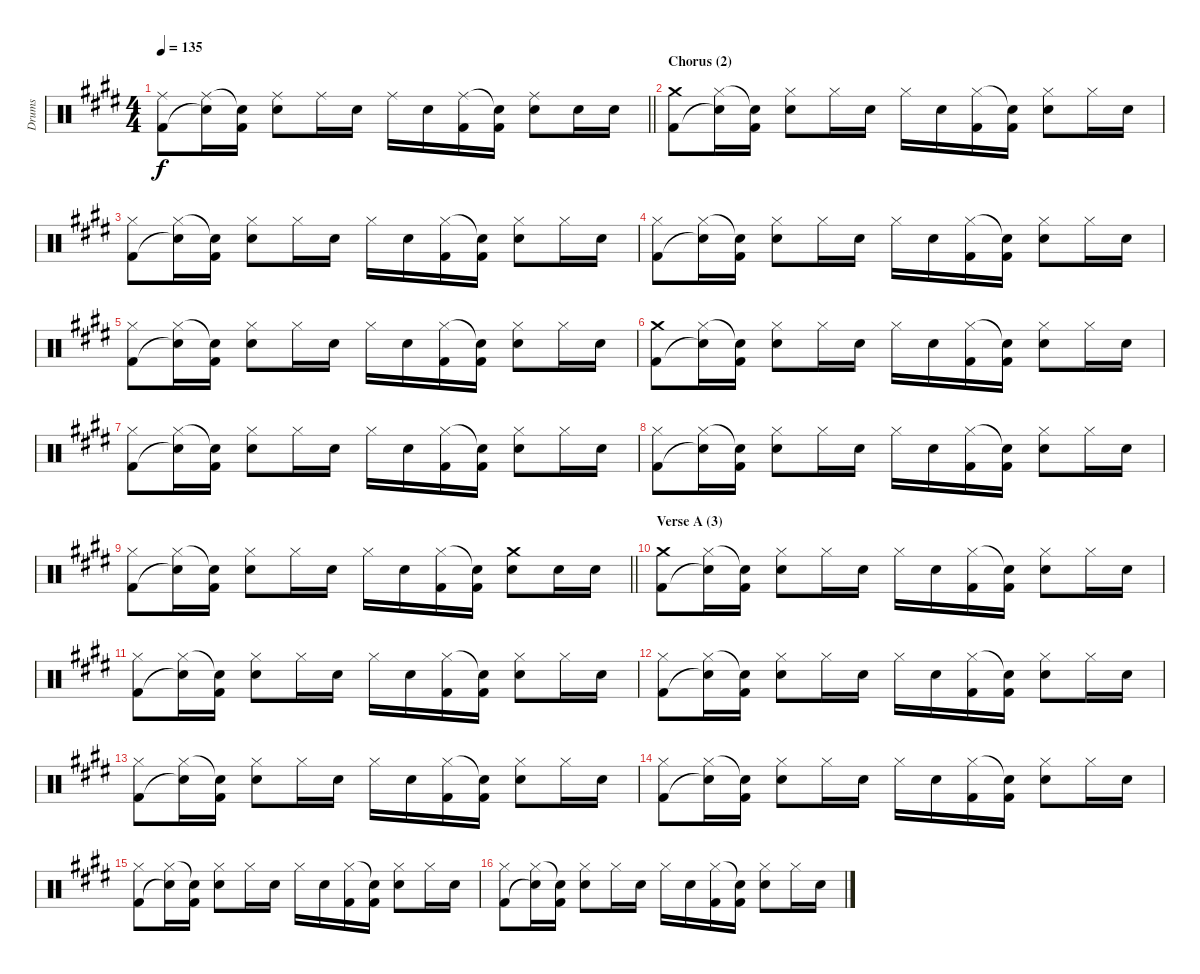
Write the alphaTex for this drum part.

\track ("Drums" "Drums") {instrument percussion}
\staff {score}
\articulation defaults
\ts (4 4)
\tempo 135
\clef neutral
\barLineRight lightlight
\ks c#minor
("Ride (middle)" "Kick (hit) 2").8{dy f} ("Ride (middle)" "Snare (hit)"{t}).16 ("Snare (hit)"{t} "Kick (hit) 2").16 ("Ride (middle)" "Electric Snare (hit)").8 "Ride (middle)".16 "Electric Snare (hit)".16 "Ride (middle)".16 "Electric Snare (hit)".16 ("Ride (middle)" "Kick (hit) 2").16 ("Snare (hit)"{t} "Kick (hit) 2").16 ("Ride (middle)" "Electric Snare (hit)").8 "Electric Snare (hit)".16 "Electric Snare (hit)".16 |
\section ("" "Chorus (2)")
("Crash medium (hit)" "Kick (hit) 2").8 ("Hi-Hat (closed)" "Snare (hit)"{t}).16 ("Snare (hit)"{t} "Kick (hit) 2").16 ("Hi-Hat (closed)" "Electric Snare (hit)").8 "Hi-Hat (closed)".16 "Electric Snare (hit)".16 "Hi-Hat (closed)".16 "Electric Snare (hit)".16 ("Hi-Hat (closed)" "Kick (hit) 2").16 ("Snare (hit)"{t} "Kick (hit) 2").16 ("Hi-Hat (closed)" "Electric Snare (hit)").8 "Hi-Hat (closed)".16 "Electric Snare (hit)".16 |
("Hi-Hat (closed)" "Kick (hit) 2").8 ("Hi-Hat (closed)" "Snare (hit)"{t}).16 ("Snare (hit)"{t} "Kick (hit) 2").16 ("Hi-Hat (closed)" "Electric Snare (hit)").8 "Hi-Hat (closed)".16 "Electric Snare (hit)".16 "Hi-Hat (closed)".16 "Electric Snare (hit)".16 ("Hi-Hat (closed)" "Kick (hit) 2").16 ("Snare (hit)"{t} "Kick (hit) 2").16 ("Hi-Hat (closed)" "Electric Snare (hit)").8 "Hi-Hat (closed)".16 "Electric Snare (hit)".16 |
("Hi-Hat (closed)" "Kick (hit) 2").8 ("Hi-Hat (closed)" "Snare (hit)"{t}).16 ("Snare (hit)"{t} "Kick (hit) 2").16 ("Hi-Hat (closed)" "Electric Snare (hit)").8 "Hi-Hat (closed)".16 "Electric Snare (hit)".16 "Hi-Hat (closed)".16 "Electric Snare (hit)".16 ("Hi-Hat (closed)" "Kick (hit) 2").16 ("Snare (hit)"{t} "Kick (hit) 2").16 ("Hi-Hat (closed)" "Electric Snare (hit)").8 "Hi-Hat (closed)".16 "Electric Snare (hit)".16 |
("Hi-Hat (closed)" "Kick (hit) 2").8 ("Hi-Hat (closed)" "Snare (hit)"{t}).16 ("Snare (hit)"{t} "Kick (hit) 2").16 ("Hi-Hat (closed)" "Electric Snare (hit)").8 "Hi-Hat (closed)".16 "Electric Snare (hit)".16 "Hi-Hat (closed)".16 "Electric Snare (hit)".16 ("Hi-Hat (closed)" "Kick (hit) 2").16 ("Snare (hit)"{t} "Kick (hit) 2").16 ("Hi-Hat (closed)" "Electric Snare (hit)").8 "Hi-Hat (closed)".16 "Electric Snare (hit)".16 |
("Crash medium (hit)" "Kick (hit) 2").8 ("Hi-Hat (closed)" "Snare (hit)"{t}).16 ("Snare (hit)"{t} "Kick (hit) 2").16 ("Hi-Hat (closed)" "Electric Snare (hit)").8 "Hi-Hat (closed)".16 "Electric Snare (hit)".16 "Hi-Hat (closed)".16 "Electric Snare (hit)".16 ("Hi-Hat (closed)" "Kick (hit) 2").16 ("Snare (hit)"{t} "Kick (hit) 2").16 ("Hi-Hat (closed)" "Electric Snare (hit)").8 "Hi-Hat (closed)".16 "Electric Snare (hit)".16 |
("Hi-Hat (closed)" "Kick (hit) 2").8 ("Hi-Hat (closed)" "Snare (hit)"{t}).16 ("Snare (hit)"{t} "Kick (hit) 2").16 ("Hi-Hat (closed)" "Electric Snare (hit)").8 "Hi-Hat (closed)".16 "Electric Snare (hit)".16 "Hi-Hat (closed)".16 "Electric Snare (hit)".16 ("Hi-Hat (closed)" "Kick (hit) 2").16 ("Snare (hit)"{t} "Kick (hit) 2").16 ("Hi-Hat (closed)" "Electric Snare (hit)").8 "Hi-Hat (closed)".16 "Electric Snare (hit)".16 |
("Hi-Hat (closed)" "Kick (hit) 2").8 ("Hi-Hat (closed)" "Snare (hit)"{t}).16 ("Snare (hit)"{t} "Kick (hit) 2").16 ("Hi-Hat (closed)" "Electric Snare (hit)").8 "Hi-Hat (closed)".16 "Electric Snare (hit)".16 "Hi-Hat (closed)".16 "Electric Snare (hit)".16 ("Hi-Hat (closed)" "Kick (hit) 2").16 ("Snare (hit)"{t} "Kick (hit) 2").16 ("Hi-Hat (closed)" "Electric Snare (hit)").8 "Hi-Hat (closed)".16 "Electric Snare (hit)".16 |
\barLineRight lightlight
("Hi-Hat (closed)" "Kick (hit) 2").8 ("Hi-Hat (closed)" "Snare (hit)"{t}).16 ("Snare (hit)"{t} "Kick (hit) 2").16 ("Hi-Hat (closed)" "Electric Snare (hit)").8 "Hi-Hat (closed)".16 "Electric Snare (hit)".16 "Hi-Hat (closed)".16 "Electric Snare (hit)".16 ("Hi-Hat (closed)" "Kick (hit) 2").16 ("Snare (hit)"{t} "Kick (hit) 2").16 ("Crash medium (hit)" "Electric Snare (hit)").8 "Electric Snare (hit)".16 "Electric Snare (hit)".16 |
\section ("" "Verse A (3)")
("Crash medium (hit)" "Kick (hit) 2").8 ("Hi-Hat (closed)" "Snare (hit)"{t}).16 ("Snare (hit)"{t} "Kick (hit) 2").16 ("Hi-Hat (closed)" "Electric Snare (hit)").8 "Hi-Hat (closed)".16 "Electric Snare (hit)".16 "Hi-Hat (closed)".16 "Electric Snare (hit)".16 ("Hi-Hat (closed)" "Kick (hit) 2").16 ("Snare (hit)"{t} "Kick (hit) 2").16 ("Hi-Hat (closed)" "Electric Snare (hit)").8 "Hi-Hat (closed)".16 "Electric Snare (hit)".16 |
("Hi-Hat (closed)" "Kick (hit) 2").8 ("Hi-Hat (closed)" "Snare (hit)"{t}).16 ("Snare (hit)"{t} "Kick (hit) 2").16 ("Hi-Hat (closed)" "Electric Snare (hit)").8 "Hi-Hat (closed)".16 "Electric Snare (hit)".16 "Hi-Hat (closed)".16 "Electric Snare (hit)".16 ("Hi-Hat (closed)" "Kick (hit) 2").16 ("Snare (hit)"{t} "Kick (hit) 2").16 ("Hi-Hat (closed)" "Electric Snare (hit)").8 "Hi-Hat (closed)".16 "Electric Snare (hit)".16 |
("Hi-Hat (closed)" "Kick (hit) 2").8 ("Hi-Hat (closed)" "Snare (hit)"{t}).16 ("Snare (hit)"{t} "Kick (hit) 2").16 ("Hi-Hat (closed)" "Electric Snare (hit)").8 "Hi-Hat (closed)".16 "Electric Snare (hit)".16 "Hi-Hat (closed)".16 "Electric Snare (hit)".16 ("Hi-Hat (closed)" "Kick (hit) 2").16 ("Snare (hit)"{t} "Kick (hit) 2").16 ("Hi-Hat (closed)" "Electric Snare (hit)").8 "Hi-Hat (closed)".16 "Electric Snare (hit)".16 |
("Hi-Hat (closed)" "Kick (hit) 2").8 ("Hi-Hat (closed)" "Snare (hit)"{t}).16 ("Snare (hit)"{t} "Kick (hit) 2").16 ("Hi-Hat (closed)" "Electric Snare (hit)").8 "Hi-Hat (closed)".16 "Electric Snare (hit)".16 "Hi-Hat (closed)".16 "Electric Snare (hit)".16 ("Hi-Hat (closed)" "Kick (hit) 2").16 ("Snare (hit)"{t} "Kick (hit) 2").16 ("Hi-Hat (closed)" "Electric Snare (hit)").8 "Hi-Hat (closed)".16 "Electric Snare (hit)".16 |
("Hi-Hat (closed)" "Kick (hit) 2").8 ("Hi-Hat (closed)" "Snare (hit)"{t}).16 ("Snare (hit)"{t} "Kick (hit) 2").16 ("Hi-Hat (closed)" "Electric Snare (hit)").8 "Hi-Hat (closed)".16 "Electric Snare (hit)".16 "Hi-Hat (closed)".16 "Electric Snare (hit)".16 ("Hi-Hat (closed)" "Kick (hit) 2").16 ("Snare (hit)"{t} "Kick (hit) 2").16 ("Hi-Hat (closed)" "Electric Snare (hit)").8 "Hi-Hat (closed)".16 "Electric Snare (hit)".16 |
("Hi-Hat (closed)" "Kick (hit) 2").8 ("Hi-Hat (closed)" "Snare (hit)"{t}).16 ("Snare (hit)"{t} "Kick (hit) 2").16 ("Hi-Hat (closed)" "Electric Snare (hit)").8 "Hi-Hat (closed)".16 "Electric Snare (hit)".16 "Hi-Hat (closed)".16 "Electric Snare (hit)".16 ("Hi-Hat (closed)" "Kick (hit) 2").16 ("Snare (hit)"{t} "Kick (hit) 2").16 ("Hi-Hat (closed)" "Electric Snare (hit)").8 "Hi-Hat (closed)".16 "Electric Snare (hit)".16 |
("Hi-Hat (closed)" "Kick (hit) 2").8 ("Hi-Hat (closed)" "Snare (hit)"{t}).16 ("Snare (hit)"{t} "Kick (hit) 2").16 ("Hi-Hat (closed)" "Electric Snare (hit)").8 "Hi-Hat (closed)".16 "Electric Snare (hit)".16 "Hi-Hat (closed)".16 "Electric Snare (hit)".16 ("Hi-Hat (closed)" "Kick (hit) 2").16 ("Snare (hit)"{t} "Kick (hit) 2").16 ("Hi-Hat (closed)" "Electric Snare (hit)").8 "Hi-Hat (closed)".16 "Electric Snare (hit)".16
